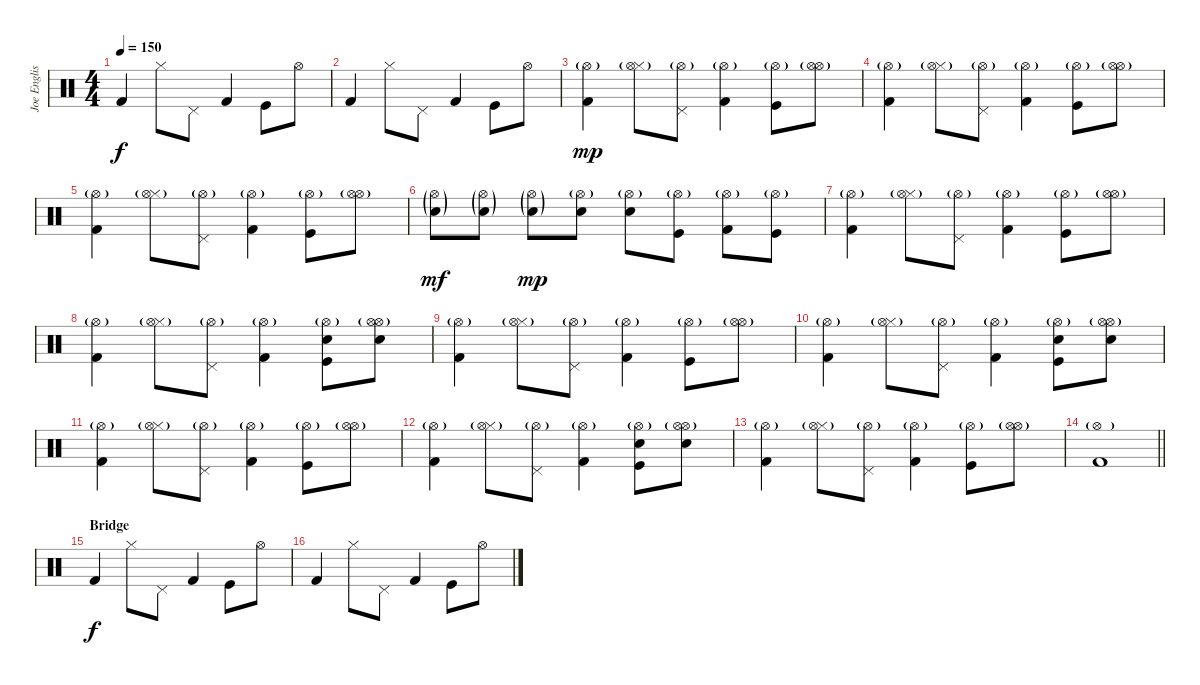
\track ("Joe English" "Joe Englis") {instrument percussion}
\staff {score}
\articulation defaults
\ts (4 4)
\tempo 150
\clef neutral
\ks c "Kick (hit) 2".4{dy f} "Hi-Hat (closed)".8 "Pedal Hi-Hat (hit)".8 "Kick (hit) 2".4 "Kick (hit)".8 "Hi-Hat (open)".8
|
"Kick (hit) 2".4 "Hi-Hat (closed)".8 "Pedal Hi-Hat (hit)".8 "Kick (hit) 2".4 "Kick (hit)".8 "Hi-Hat (open)".8 |
("Kick (hit) 2" "Hi-Hat (open)"{g}).4{dy mp} ("Hi-Hat (closed)" "Hi-Hat (open)"{g}).8 ("Pedal Hi-Hat (hit)" "Hi-Hat (open)"{g}).8 ("Kick (hit) 2" "Hi-Hat (open)"{g}).4 ("Kick (hit)" "Hi-Hat (open)"{g}).8 ("Hi-Hat (open)" "Hi-Hat (open)"{g}).8 |
("Kick (hit) 2" "Hi-Hat (open)"{g}).4 ("Hi-Hat (closed)" "Hi-Hat (open)"{g}).8 ("Pedal Hi-Hat (hit)" "Hi-Hat (open)"{g}).8 ("Kick (hit) 2" "Hi-Hat (open)"{g}).4 ("Kick (hit)" "Hi-Hat (open)"{g}).8 ("Hi-Hat (open)" "Hi-Hat (open)"{g}).8 |
("Kick (hit) 2" "Hi-Hat (open)"{g}).4 ("Hi-Hat (closed)" "Hi-Hat (open)"{g}).8 ("Pedal Hi-Hat (hit)" "Hi-Hat (open)"{g}).8 ("Kick (hit) 2" "Hi-Hat (open)"{g}).4 ("Kick (hit)" "Hi-Hat (open)"{g}).8 ("Hi-Hat (open)" "Hi-Hat (open)"{g}).8 |
("Hi-Hat (open)"{g} "Snare (hit) 2"{g}).8{dy mf} ("Hi-Hat (open)"{g} "Snare (hit) 2"{g}).8 ("Hi-Hat (open)"{g} "Snare (hit) 2"{g}).8{dy mp} ("Hi-Hat (open)"{g} "Snare (hit) 2").8 ("Hi-Hat (open)"{g} "Snare (hit) 2").8 ("Hi-Hat (open)"{g} "Kick (hit)").8 ("Hi-Hat (open)"{g} "Kick (hit) 2").8 ("Hi-Hat (open)"{g} "Kick (hit)").8 |
("Kick (hit) 2" "Hi-Hat (open)"{g}).4 ("Hi-Hat (closed)" "Hi-Hat (open)"{g}).8 ("Pedal Hi-Hat (hit)" "Hi-Hat (open)"{g}).8 ("Kick (hit) 2" "Hi-Hat (open)"{g}).4 ("Kick (hit)" "Hi-Hat (open)"{g}).8 ("Hi-Hat (open)" "Hi-Hat (open)"{g}).8 |
("Kick (hit) 2" "Hi-Hat (open)"{g}).4 ("Hi-Hat (closed)" "Hi-Hat (open)"{g}).8 ("Pedal Hi-Hat (hit)" "Hi-Hat (open)"{g}).8 ("Kick (hit) 2" "Hi-Hat (open)"{g}).4 ("Snare (hit) 2" "Kick (hit)" "Hi-Hat (open)"{g}).8 ("Snare (hit) 2" "Hi-Hat (open)" "Hi-Hat (open)"{g}).8 |
("Kick (hit) 2" "Hi-Hat (open)"{g}).4 ("Hi-Hat (closed)" "Hi-Hat (open)"{g}).8 ("Pedal Hi-Hat (hit)" "Hi-Hat (open)"{g}).8 ("Kick (hit) 2" "Hi-Hat (open)"{g}).4 ("Kick (hit)" "Hi-Hat (open)"{g}).8 ("Hi-Hat (open)" "Hi-Hat (open)"{g}).8 |
("Kick (hit) 2" "Hi-Hat (open)"{g}).4 ("Hi-Hat (closed)" "Hi-Hat (open)"{g}).8 ("Pedal Hi-Hat (hit)" "Hi-Hat (open)"{g}).8 ("Kick (hit) 2" "Hi-Hat (open)"{g}).4 ("Snare (hit) 2" "Kick (hit)" "Hi-Hat (open)"{g}).8 ("Snare (hit) 2" "Hi-Hat (open)" "Hi-Hat (open)"{g}).8 |
("Kick (hit) 2" "Hi-Hat (open)"{g}).4 ("Hi-Hat (closed)" "Hi-Hat (open)"{g}).8 ("Pedal Hi-Hat (hit)" "Hi-Hat (open)"{g}).8 ("Kick (hit) 2" "Hi-Hat (open)"{g}).4 ("Kick (hit)" "Hi-Hat (open)"{g}).8 ("Hi-Hat (open)" "Hi-Hat (open)"{g}).8 |
("Kick (hit) 2" "Hi-Hat (open)"{g}).4 ("Hi-Hat (closed)" "Hi-Hat (open)"{g}).8 ("Pedal Hi-Hat (hit)" "Hi-Hat (open)"{g}).8 ("Kick (hit) 2" "Hi-Hat (open)"{g}).4 ("Snare (hit) 2" "Kick (hit)" "Hi-Hat (open)"{g}).8 ("Snare (hit) 2" "Hi-Hat (open)" "Hi-Hat (open)"{g}).8 |
("Kick (hit) 2" "Hi-Hat (open)"{g}).4 ("Hi-Hat (closed)" "Hi-Hat (open)"{g}).8 ("Pedal Hi-Hat (hit)" "Hi-Hat (open)"{g}).8 ("Kick (hit) 2" "Hi-Hat (open)"{g}).4 ("Kick (hit)" "Hi-Hat (open)"{g}).8 ("Hi-Hat (open)" "Hi-Hat (open)"{g}).8 |
\barLineRight lightlight
("Kick (hit) 2" "Hi-Hat (open)"{g}).1 |
\section ("" "Bridge")
"Kick (hit) 2".4{dy f} "Hi-Hat (closed)".8 "Pedal Hi-Hat (hit)".8 "Kick (hit) 2".4 "Kick (hit)".8 "Hi-Hat (open)".8 |
"Kick (hit) 2".4 "Hi-Hat (closed)".8 "Pedal Hi-Hat (hit)".8 "Kick (hit) 2".4 "Kick (hit)".8 "Hi-Hat (open)".8
